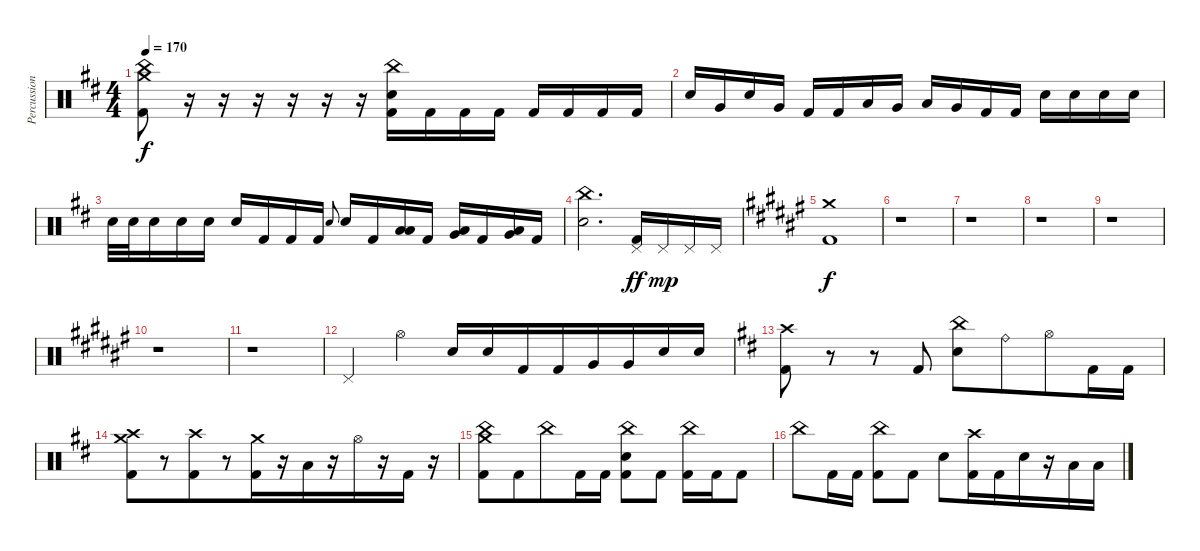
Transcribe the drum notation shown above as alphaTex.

\track ("Percussion" "Percussion") {instrument percussion}
\staff {score}
\articulation defaults
\ts (4 4)
\tempo 170
\clef neutral
\ks bminor
("China (hit)" "Crash medium (hit)" "Kick (hit) 2").8{dy f} r.16 r.16 r.16 r.16 r.16 r.16 ("China (hit)" "Electric Snare (hit)" "Kick (hit) 2").16 "Kick (hit) 2".16 "Kick (hit) 2".16 "Kick (hit) 2".16 "Kick (hit) 2".16 "Kick (hit) 2".16 "Kick (hit) 2".16 "Kick (hit) 2".16 |
"Electric Snare (hit)".16 "Very Low Tom (hit)".16 "Electric Snare (hit)".16 "Very Low Tom (hit)".16 "Kick (hit) 2".16 "Kick (hit) 2".16 "Low Floor Tom (hit)".16 "Very Low Tom (hit)".16 "Low Floor Tom (hit)".16 "Very Low Tom (hit)".16 "Kick (hit) 2".16 "Kick (hit) 2".16 "Electric Snare (hit)".16 "Electric Snare (hit)".16 "Electric Snare (hit)".16 "Electric Snare (hit)".16 |
"Electric Snare (hit)".32 "Electric Snare (hit)".32 "Electric Snare (hit)".16 "Electric Snare (hit)".16 "Electric Snare (hit)".16 "Electric Snare (hit)".16 "Kick (hit) 2".16 "Kick (hit) 2".16 "Kick (hit) 2".16 "Electric Snare (hit)".8{gr onbeat} "Electric Snare (hit)".16 "Kick (hit) 2".16 ("Low Floor Tom (hit)" "Low Tom (hit)").16 "Kick (hit) 2".16 ("Low Floor Tom (hit)" "Very Low Tom (hit)").16 "Kick (hit) 2".16 ("Low Floor Tom (hit)" "Very Low Tom (hit)").16 "Kick (hit) 2".16 |
("China (hit)" "Electric Snare (hit)").2{d} ("Pedal Hi-Hat (hit)" "Kick (hit) 2").16{dy ff} "Pedal Hi-Hat (hit)".16{dy mp} "Pedal Hi-Hat (hit)".16 "Pedal Hi-Hat (hit)".16 |
\ks d#minor
("Crash medium (hit)" "Kick (hit) 2").1{dy f} |
r.1 |
r.1 |
r.1 |
r.1 |
r.1 |
r.1 |
"Pedal Hi-Hat (hit)".4 "Hi-Hat (open)".4 "Electric Snare (hit)".16 "Electric Snare (hit)".16 "Kick (hit) 2".16 "Kick (hit) 2".16{beam merge} "Very Low Tom (hit)".16 "Very Low Tom (hit)".16 "Electric Snare (hit)".16 "Electric Snare (hit)".16 |
\ks bminor
("Crash high (hit)" "Kick (hit) 2").8 r.8{beam merge} r.8 "Kick (hit) 2".8 ("China (hit)" "Electric Snare (hit)").8 "Ride (bell)".8{beam merge} "Hi-Hat (open)".8{beam merge} "Kick (hit) 2".16 "Kick (hit) 2".16 |
("Crash medium (hit)" "Crash high (hit)" "Kick (hit) 2").8{beam merge} r.8 ("Crash high (hit)" "Kick (hit) 2").8{beam merge} r.8{beam merge} ("Crash medium (hit)" "Kick (hit) 2").16 r.16 "Low Tom (hit)".16{beam merge} r.16 "Hi-Hat (open)".16{beam merge} r.16{beam merge} "Kick (hit) 2".16 r.16 |
("China (hit)" "Crash medium (hit)" "Kick (hit) 2").8 "Kick (hit) 2".8{beam merge} "China (hit)".8{beam merge} "Kick (hit) 2".16{beam merge} "Kick (hit) 2".16 ("China (hit)" "Electric Snare (hit)" "Kick (hit) 2").8{beam merge} "Kick (hit) 2".8 ("China (hit)" "Kick (hit) 2").16 "Kick (hit) 2".16{beam merge} "Kick (hit) 2".8 |
"China (hit)".8 "Kick (hit) 2".16{beam merge} "Kick (hit) 2".16 ("China (hit)" "Kick (hit) 2").8 "Kick (hit) 2".8 "Electric Snare (hit)".8 ("Crash high (hit)" "Kick (hit) 2").16 "Kick (hit) 2".16{beam merge} "Electric Snare (hit)".16{beam merge} r.16{beam merge} "Low Tom (hit)".16 "Low Tom (hit)".16
